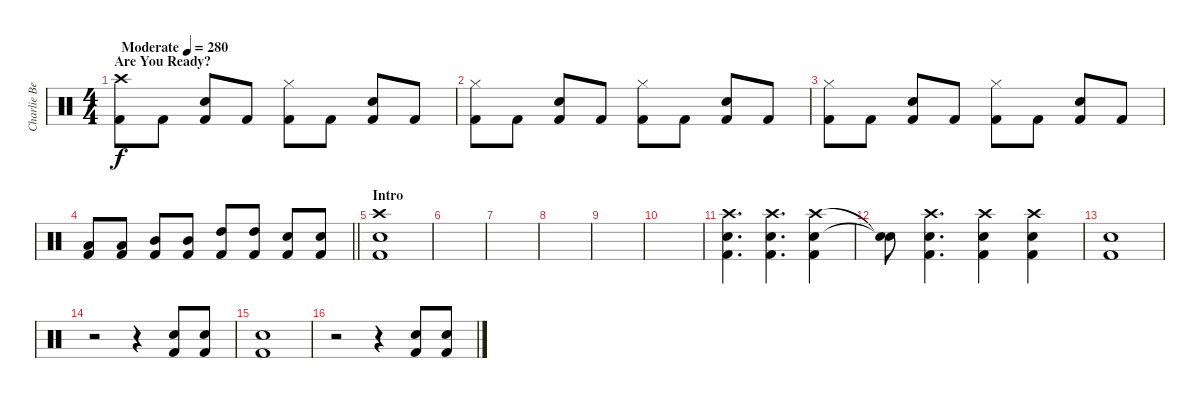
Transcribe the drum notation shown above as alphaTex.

\track ("Charlie Benante" "Charlie Be") {instrument percussion}
\staff {score}
\articulation defaults
\ts (4 4)
\section ("" "Are You Ready?")
\tempo (280 "Moderate")
\clef neutral
\ks c
("Crash high (hit)" "Kick (hit) 2").8{dy f} "Kick (hit) 2".8 ("Snare (hit) 2" "Kick (hit) 2").8 "Kick (hit) 2".8 ("Hi-Hat (closed)" "Kick (hit) 2").8 "Kick (hit) 2".8 ("Snare (hit) 2" "Kick (hit) 2").8 "Kick (hit) 2".8 |
("Hi-Hat (closed)" "Kick (hit) 2").8 "Kick (hit) 2".8 ("Snare (hit) 2" "Kick (hit) 2").8 "Kick (hit) 2".8 ("Hi-Hat (closed)" "Kick (hit) 2").8 "Kick (hit) 2".8 ("Snare (hit) 2" "Kick (hit) 2").8 "Kick (hit) 2".8 |
("Hi-Hat (closed)" "Kick (hit) 2").8 "Kick (hit) 2".8 ("Snare (hit) 2" "Kick (hit) 2").8 "Kick (hit) 2".8 ("Hi-Hat (closed)" "Kick (hit) 2").8 "Kick (hit) 2".8 ("Snare (hit) 2" "Kick (hit) 2").8 "Kick (hit) 2".8 |
\barLineRight lightlight
("Low Tom (hit)" "Kick (hit) 2").8 ("Low Tom (hit)" "Kick (hit) 2").8 ("Mid Tom (hit)" "Kick (hit) 2").8 ("Mid Tom (hit)" "Kick (hit) 2").8 ("High Tom (hit)" "Kick (hit) 2").8 ("High Tom (hit)" "Kick (hit) 2").8 ("Snare (hit) 2" "Kick (hit) 2").8 ("Snare (hit) 2" "Kick (hit) 2").8 |
\section ("" "Intro")
("Crash high (hit)" "Snare (hit) 2" "Kick (hit) 2").1 |
|
|
|
|
|
("Crash high (hit)" "Snare (hit) 2" "Kick (hit) 2").4{d} ("Crash high (hit)" "Snare (hit) 2" "Kick (hit) 2").4{d} ("Crash high (hit)" "Snare (hit) 2" "Kick (hit) 2").4 |
("Snare (hit)"{t} "Snare (hit)"{t}).8 ("Crash high (hit)" "Snare (hit) 2" "Kick (hit) 2").4{d} ("Crash high (hit)" "Snare (hit) 2" "Kick (hit) 2").4 ("Crash high (hit)" "Snare (hit) 2" "Kick (hit) 2").4 |
("Snare (hit) 2" "Kick (hit) 2").1 |
r.2 r.4 ("Snare (hit) 2" "Kick (hit) 2").8 ("Snare (hit) 2" "Kick (hit) 2").8 |
("Snare (hit) 2" "Kick (hit) 2").1 |
r.2 r.4 ("Snare (hit) 2" "Kick (hit) 2").8 ("Snare (hit) 2" "Kick (hit) 2").8
